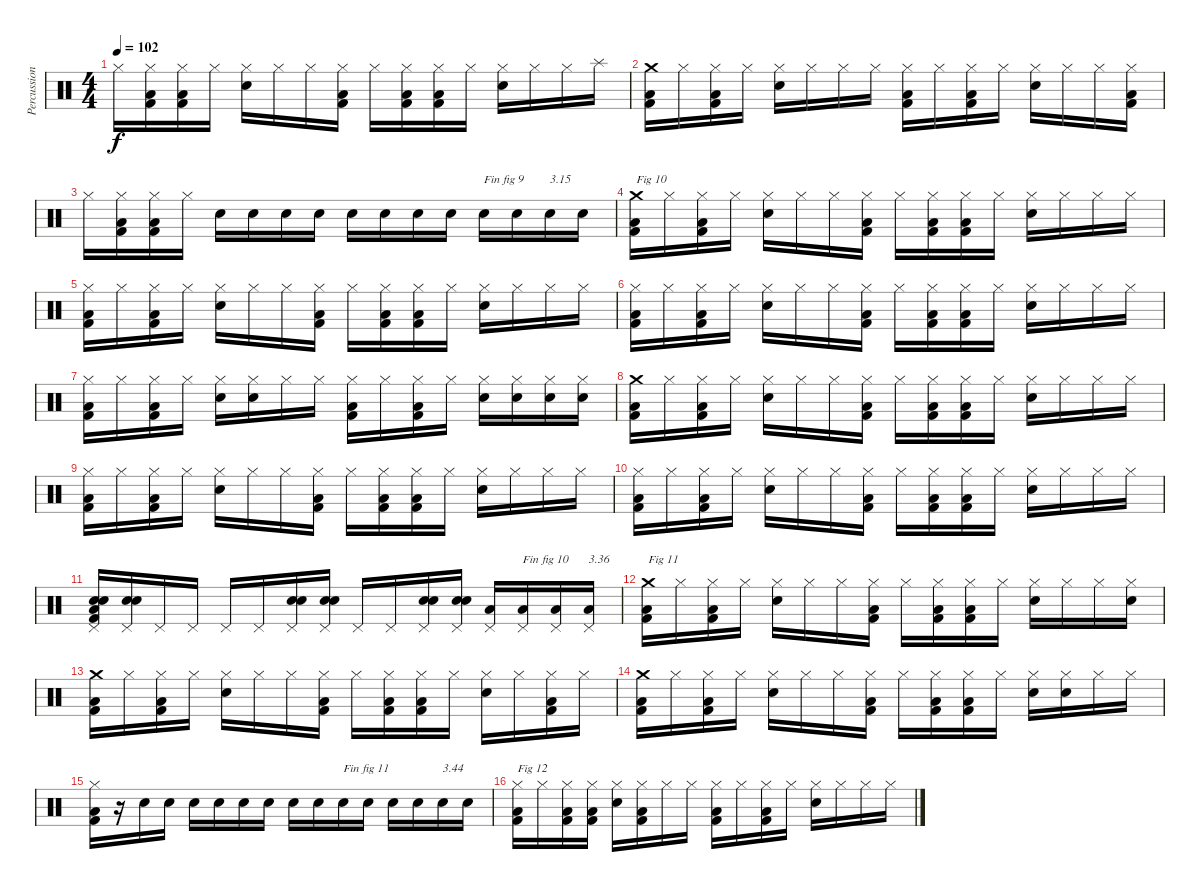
\track ("Percussions" "Percussion") {instrument percussion}
\staff {score}
\articulation defaults
\ts (4 4)
\tempo 102
\clef neutral
\ks c "Hi-Hat (closed)".16{dy f}
("Kick (hit) 2" "Low Floor Tom (hit)" "Hi-Hat (closed)").16 ("Kick (hit) 2" "Low Floor Tom (hit)" "Hi-Hat (closed)").16 "Hi-Hat (closed)".16 ("Snare (hit) 2" "Hi-Hat (closed)").16 "Hi-Hat (closed)".16 "Hi-Hat (closed)".16 ("Kick (hit) 2" "Low Floor Tom (hit)" "Hi-Hat (closed)").16 "Hi-Hat (closed)".16 ("Kick (hit) 2" "Low Floor Tom (hit)" "Hi-Hat (closed)").16 ("Kick (hit) 2" "Low Floor Tom (hit)" "Hi-Hat (closed)").16 "Hi-Hat (closed)".16 ("Snare (hit) 2" "Hi-Hat (closed)").16 "Hi-Hat (closed)".16 "Hi-Hat (closed)".16 "Splash (hit)".16 |
("Kick (hit) 2" "Low Floor Tom (hit)" "Crash medium (hit)").16 "Hi-Hat (closed)".16 ("Kick (hit) 2" "Low Floor Tom (hit)" "Hi-Hat (closed)").16 "Hi-Hat (closed)".16 ("Snare (hit) 2" "Hi-Hat (closed)").16 "Hi-Hat (closed)".16 "Hi-Hat (closed)".16 "Hi-Hat (closed)".16 ("Kick (hit) 2" "Low Floor Tom (hit)" "Hi-Hat (closed)").16 "Hi-Hat (closed)".16 ("Kick (hit) 2" "Low Floor Tom (hit)" "Hi-Hat (closed)").16 "Hi-Hat (closed)".16 ("Snare (hit) 2" "Hi-Hat (closed)").16 "Hi-Hat (closed)".16 "Hi-Hat (closed)".16 ("Kick (hit) 2" "Low Floor Tom (hit)" "Hi-Hat (closed)").16 |
"Hi-Hat (closed)".16 ("Kick (hit) 2" "Low Floor Tom (hit)" "Hi-Hat (closed)").16 ("Kick (hit) 2" "Low Floor Tom (hit)" "Hi-Hat (closed)").16 "Hi-Hat (closed)".16 "Snare (hit) 2".16 "Snare (hit) 2".16 "Snare (hit) 2".16 "Snare (hit) 2".16 "Snare (hit) 2".16 "Snare (hit) 2".16 "Snare (hit) 2".16 "Snare (hit) 2".16 "Snare (hit) 2".16{txt "Fin fig 9"} "Snare (hit) 2".16 "Snare (hit) 2".16{txt "3.15"} "Snare (hit) 2".16 |
("Kick (hit) 2" "Low Floor Tom (hit)" "Crash medium (hit)").16{txt "Fig 10"} "Hi-Hat (closed)".16 ("Kick (hit) 2" "Low Floor Tom (hit)" "Hi-Hat (closed)").16 "Hi-Hat (closed)".16 ("Snare (hit) 2" "Hi-Hat (closed)").16 "Hi-Hat (closed)".16 "Hi-Hat (closed)".16 ("Kick (hit) 2" "Low Floor Tom (hit)" "Hi-Hat (closed)").16 "Hi-Hat (closed)".16 ("Kick (hit) 2" "Low Floor Tom (hit)" "Hi-Hat (closed)").16 ("Kick (hit) 2" "Low Floor Tom (hit)" "Hi-Hat (closed)").16 "Hi-Hat (closed)".16 ("Snare (hit) 2" "Hi-Hat (closed)").16 "Hi-Hat (closed)".16 "Hi-Hat (closed)".16 "Hi-Hat (closed)".16 |
("Kick (hit) 2" "Low Floor Tom (hit)" "Hi-Hat (closed)").16 "Hi-Hat (closed)".16 ("Kick (hit) 2" "Low Floor Tom (hit)" "Hi-Hat (closed)").16 "Hi-Hat (closed)".16 ("Snare (hit) 2" "Hi-Hat (closed)").16 "Hi-Hat (closed)".16 "Hi-Hat (closed)".16 ("Kick (hit) 2" "Low Floor Tom (hit)" "Hi-Hat (closed)").16 "Hi-Hat (closed)".16 ("Kick (hit) 2" "Low Floor Tom (hit)" "Hi-Hat (closed)").16 ("Kick (hit) 2" "Low Floor Tom (hit)" "Hi-Hat (closed)").16 "Hi-Hat (closed)".16 ("Snare (hit) 2" "Hi-Hat (closed)").16 "Hi-Hat (closed)".16 "Hi-Hat (closed)".16 "Hi-Hat (closed)".16 |
("Kick (hit) 2" "Low Floor Tom (hit)" "Hi-Hat (closed)").16 "Hi-Hat (closed)".16 ("Kick (hit) 2" "Low Floor Tom (hit)" "Hi-Hat (closed)").16 "Hi-Hat (closed)".16 ("Snare (hit) 2" "Hi-Hat (closed)").16 "Hi-Hat (closed)".16 "Hi-Hat (closed)".16 ("Kick (hit) 2" "Low Floor Tom (hit)" "Hi-Hat (closed)").16 "Hi-Hat (closed)".16 ("Kick (hit) 2" "Low Floor Tom (hit)" "Hi-Hat (closed)").16 ("Kick (hit) 2" "Low Floor Tom (hit)" "Hi-Hat (closed)").16 "Hi-Hat (closed)".16 ("Snare (hit) 2" "Hi-Hat (closed)").16 "Hi-Hat (closed)".16 "Hi-Hat (closed)".16 "Hi-Hat (closed)".16 |
("Kick (hit) 2" "Low Floor Tom (hit)" "Hi-Hat (closed)").16 "Hi-Hat (closed)".16 ("Kick (hit) 2" "Low Floor Tom (hit)" "Hi-Hat (closed)").16 "Hi-Hat (closed)".16 ("Snare (hit) 2" "Hi-Hat (closed)").16 ("Snare (hit) 2" "Hi-Hat (closed)").16 "Hi-Hat (closed)".16 "Hi-Hat (closed)".16 ("Kick (hit) 2" "Low Floor Tom (hit)" "Hi-Hat (closed)").16 "Hi-Hat (closed)".16 ("Kick (hit) 2" "Low Floor Tom (hit)" "Hi-Hat (closed)").16 "Hi-Hat (closed)".16 ("Snare (hit) 2" "Hi-Hat (closed)").16 ("Snare (hit) 2" "Hi-Hat (closed)").16 ("Snare (hit) 2" "Hi-Hat (closed)").16 ("Snare (hit) 2" "Hi-Hat (closed)").16 |
("Kick (hit) 2" "Low Floor Tom (hit)" "Crash medium (hit)").16 "Hi-Hat (closed)".16 ("Kick (hit) 2" "Low Floor Tom (hit)" "Hi-Hat (closed)").16 "Hi-Hat (closed)".16 ("Snare (hit) 2" "Hi-Hat (closed)").16 "Hi-Hat (closed)".16 "Hi-Hat (closed)".16 ("Kick (hit) 2" "Low Floor Tom (hit)" "Hi-Hat (closed)").16 "Hi-Hat (closed)".16 ("Kick (hit) 2" "Low Floor Tom (hit)" "Hi-Hat (closed)").16 ("Kick (hit) 2" "Low Floor Tom (hit)" "Hi-Hat (closed)").16 "Hi-Hat (closed)".16 ("Snare (hit) 2" "Hi-Hat (closed)").16 "Hi-Hat (closed)".16 "Hi-Hat (closed)".16 "Hi-Hat (closed)".16 |
("Kick (hit) 2" "Low Floor Tom (hit)" "Hi-Hat (closed)").16 "Hi-Hat (closed)".16 ("Kick (hit) 2" "Low Floor Tom (hit)" "Hi-Hat (closed)").16 "Hi-Hat (closed)".16 ("Snare (hit) 2" "Hi-Hat (closed)").16 "Hi-Hat (closed)".16 "Hi-Hat (closed)".16 ("Kick (hit) 2" "Low Floor Tom (hit)" "Hi-Hat (closed)").16 "Hi-Hat (closed)".16 ("Kick (hit) 2" "Low Floor Tom (hit)" "Hi-Hat (closed)").16 ("Kick (hit) 2" "Low Floor Tom (hit)" "Hi-Hat (closed)").16 "Hi-Hat (closed)".16 ("Snare (hit) 2" "Hi-Hat (closed)").16 "Hi-Hat (closed)".16 "Hi-Hat (closed)".16 "Hi-Hat (closed)".16 |
("Kick (hit) 2" "Low Floor Tom (hit)" "Hi-Hat (closed)").16 "Hi-Hat (closed)".16 ("Kick (hit) 2" "Low Floor Tom (hit)" "Hi-Hat (closed)").16 "Hi-Hat (closed)".16 ("Snare (hit) 2" "Hi-Hat (closed)").16 "Hi-Hat (closed)".16 "Hi-Hat (closed)".16 ("Kick (hit) 2" "Low Floor Tom (hit)" "Hi-Hat (closed)").16 "Hi-Hat (closed)".16 ("Kick (hit) 2" "Low Floor Tom (hit)" "Hi-Hat (closed)").16 ("Kick (hit) 2" "Low Floor Tom (hit)" "Hi-Hat (closed)").16 "Hi-Hat (closed)".16 ("Snare (hit) 2" "Hi-Hat (closed)").16 "Hi-Hat (closed)".16 "Hi-Hat (closed)".16 "Hi-Hat (closed)".16 |
("Kick (hit) 2" "Low Floor Tom (hit)" "Electric Snare (hit)" "Hand Clap (hit)" "Pedal Hi-Hat (hit)").16 ("Electric Snare (hit)" "Hand Clap (hit)" "Pedal Hi-Hat (hit)").16 "Pedal Hi-Hat (hit)".16 "Pedal Hi-Hat (hit)".16 "Pedal Hi-Hat (hit)".16 "Pedal Hi-Hat (hit)".16 ("Electric Snare (hit)" "Hand Clap (hit)" "Pedal Hi-Hat (hit)").16 ("Electric Snare (hit)" "Hand Clap (hit)" "Pedal Hi-Hat (hit)").16 "Pedal Hi-Hat (hit)".16 "Pedal Hi-Hat (hit)".16 ("Electric Snare (hit)" "Hand Clap (hit)" "Pedal Hi-Hat (hit)").16 ("Electric Snare (hit)" "Hand Clap (hit)" "Pedal Hi-Hat (hit)").16 ("Low Tom (hit)" "Pedal Hi-Hat (hit)").16 ("Low Tom (hit)" "Pedal Hi-Hat (hit)").16{txt "Fin fig 10"} ("Low Tom (hit)" "Pedal Hi-Hat (hit)").16 ("Low Tom (hit)" "Pedal Hi-Hat (hit)").16{txt "3.36"} |
("Kick (hit) 2" "Low Floor Tom (hit)" "Crash medium (hit)").16{txt "Fig 11"} "Hi-Hat (closed)".16 ("Kick (hit) 2" "Low Floor Tom (hit)" "Hi-Hat (closed)").16 "Hi-Hat (closed)".16 ("Snare (hit) 2" "Hi-Hat (closed)").16 "Hi-Hat (closed)".16 "Hi-Hat (closed)".16 ("Kick (hit) 2" "Low Floor Tom (hit)" "Hi-Hat (closed)").16 "Hi-Hat (closed)".16 ("Kick (hit) 2" "Low Floor Tom (hit)" "Hi-Hat (closed)").16 ("Kick (hit) 2" "Low Floor Tom (hit)" "Hi-Hat (closed)").16 "Hi-Hat (closed)".16 ("Snare (hit) 2" "Hi-Hat (closed)").16 "Hi-Hat (closed)".16 "Hi-Hat (closed)".16 ("Snare (hit) 2" "Hi-Hat (closed)").16 |
("Kick (hit) 2" "Low Floor Tom (hit)" "Crash medium (hit)").16 "Hi-Hat (closed)".16 ("Kick (hit) 2" "Low Floor Tom (hit)" "Hi-Hat (closed)").16 "Hi-Hat (closed)".16 ("Snare (hit) 2" "Hi-Hat (closed)").16 "Hi-Hat (closed)".16 "Hi-Hat (closed)".16 ("Kick (hit) 2" "Low Floor Tom (hit)" "Hi-Hat (closed)").16 "Hi-Hat (closed)".16 ("Kick (hit) 2" "Low Floor Tom (hit)" "Hi-Hat (closed)").16 ("Kick (hit) 2" "Low Floor Tom (hit)" "Hi-Hat (closed)").16 "Hi-Hat (closed)".16 ("Snare (hit) 2" "Hi-Hat (closed)").16 "Hi-Hat (closed)".16 ("Kick (hit) 2" "Low Floor Tom (hit)" "Hi-Hat (closed)").16 "Hi-Hat (closed)".16 |
("Kick (hit) 2" "Low Floor Tom (hit)" "Crash medium (hit)").16 "Hi-Hat (closed)".16 ("Kick (hit) 2" "Low Floor Tom (hit)" "Hi-Hat (closed)").16 "Hi-Hat (closed)".16 ("Snare (hit) 2" "Hi-Hat (closed)").16 "Hi-Hat (closed)".16 "Hi-Hat (closed)".16 ("Kick (hit) 2" "Low Floor Tom (hit)" "Hi-Hat (closed)").16 "Hi-Hat (closed)".16 ("Kick (hit) 2" "Low Floor Tom (hit)" "Hi-Hat (closed)").16 ("Kick (hit) 2" "Low Floor Tom (hit)" "Hi-Hat (closed)").16 "Hi-Hat (closed)".16 ("Snare (hit) 2" "Hi-Hat (closed)").16 ("Snare (hit) 2" "Hi-Hat (closed)").16 "Hi-Hat (closed)".16 "Hi-Hat (closed)".16 |
("Kick (hit) 2" "Low Floor Tom (hit)" "Hi-Hat (closed)").16 r.16 "Snare (hit) 2".16 "Snare (hit) 2".16 "Snare (hit) 2".16 "Snare (hit) 2".16 "Snare (hit) 2".16 "Snare (hit) 2".16 "Snare (hit) 2".16 "Snare (hit) 2".16 "Snare (hit) 2".16{txt "Fin fig 11"} "Snare (hit) 2".16 "Snare (hit) 2".16 "Snare (hit) 2".16 "Snare (hit) 2".16{txt "3.44"} "Snare (hit) 2".16 |
("Kick (hit) 2" "Low Floor Tom (hit)" "Hi-Hat (closed)").16{txt "Fig 12"} "Hi-Hat (closed)".16 ("Kick (hit) 2" "Low Floor Tom (hit)" "Hi-Hat (closed)").16 ("Kick (hit) 2" "Low Floor Tom (hit)" "Hi-Hat (closed)").16 ("Snare (hit) 2" "Hi-Hat (closed)").16 ("Kick (hit) 2" "Low Floor Tom (hit)" "Hi-Hat (closed)").16 "Hi-Hat (closed)".16 "Hi-Hat (closed)".16 ("Kick (hit) 2" "Low Floor Tom (hit)" "Hi-Hat (closed)").16 "Hi-Hat (closed)".16 ("Kick (hit) 2" "Low Floor Tom (hit)" "Hi-Hat (closed)").16 "Hi-Hat (closed)".16 ("Snare (hit) 2" "Hi-Hat (closed)").16 "Hi-Hat (closed)".16 "Hi-Hat (closed)".16 "Hi-Hat (closed)".16
